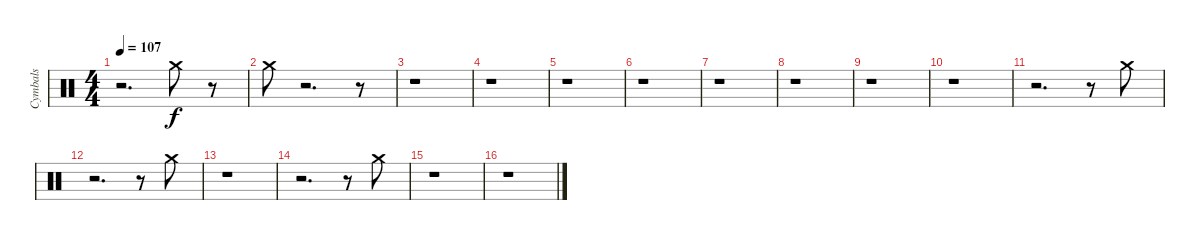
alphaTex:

\track ("Cymbals" "Cymbals") {instrument percussion}
\staff {score}
\articulation defaults
\ts (4 4)
\tempo 107
\clef neutral
\ks c
r.2{d dy f} "Crash medium (hit)".8 r.8 |
"Crash medium (hit)".8 r.2{d} r.8 |
r.1 |
r.1 |
r.1 |
r.1 |
r.1 |
r.1 |
r.1 |
r.1 |
r.2{d} r.8 "Crash medium (hit)".8 |
r.2{d} r.8 "Crash medium (hit)".8 |
r.1 |
r.2{d} r.8 "Crash medium (hit)".8 |
r.1 |
r.1
